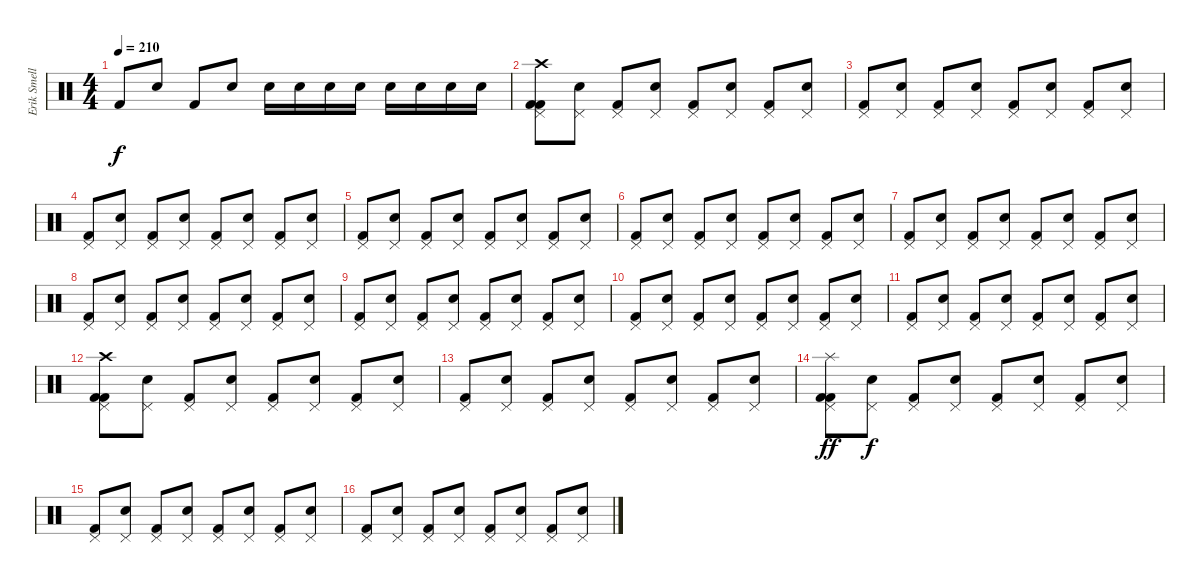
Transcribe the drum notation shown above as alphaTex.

\track ("Erik Smelly" "Erik Smell") {instrument percussion}
\staff {score}
\articulation defaults
\ts (4 4)
\tempo 210
\clef neutral
\ks c "Kick (hit) 2".8{dy f} "Electric Snare (hit)".8 "Kick (hit) 2".8 "Electric Snare (hit)".8 "Electric Snare (hit)".16 "Electric Snare (hit)".16 "Electric Snare (hit)".16 "Electric Snare (hit)".16 "Electric Snare (hit)".16 "Electric Snare (hit)".16 "Electric Snare (hit)".16 "Electric Snare (hit)".16
|
("Pedal Hi-Hat (hit)" "Kick (hit) 2" "Crash high (hit)" "Kick (hit) 2").8 ("Pedal Hi-Hat (hit)" "Electric Snare (hit)").8 ("Pedal Hi-Hat (hit)" "Kick (hit) 2").8 ("Pedal Hi-Hat (hit)" "Electric Snare (hit)").8 ("Pedal Hi-Hat (hit)" "Kick (hit) 2").8 ("Pedal Hi-Hat (hit)" "Electric Snare (hit)").8 ("Pedal Hi-Hat (hit)" "Kick (hit) 2").8 ("Pedal Hi-Hat (hit)" "Electric Snare (hit)").8 |
("Pedal Hi-Hat (hit)" "Kick (hit) 2").8 ("Pedal Hi-Hat (hit)" "Electric Snare (hit)").8 ("Pedal Hi-Hat (hit)" "Kick (hit) 2").8 ("Pedal Hi-Hat (hit)" "Electric Snare (hit)").8 ("Pedal Hi-Hat (hit)" "Kick (hit) 2").8 ("Pedal Hi-Hat (hit)" "Electric Snare (hit)").8 ("Pedal Hi-Hat (hit)" "Kick (hit) 2").8 ("Pedal Hi-Hat (hit)" "Electric Snare (hit)").8 |
("Pedal Hi-Hat (hit)" "Kick (hit) 2").8 ("Pedal Hi-Hat (hit)" "Electric Snare (hit)").8 ("Pedal Hi-Hat (hit)" "Kick (hit) 2").8 ("Pedal Hi-Hat (hit)" "Electric Snare (hit)").8 ("Pedal Hi-Hat (hit)" "Kick (hit) 2").8 ("Pedal Hi-Hat (hit)" "Electric Snare (hit)").8 ("Pedal Hi-Hat (hit)" "Kick (hit) 2").8 ("Pedal Hi-Hat (hit)" "Electric Snare (hit)").8 |
("Pedal Hi-Hat (hit)" "Kick (hit) 2").8 ("Pedal Hi-Hat (hit)" "Electric Snare (hit)").8 ("Pedal Hi-Hat (hit)" "Kick (hit) 2").8 ("Pedal Hi-Hat (hit)" "Electric Snare (hit)").8 ("Pedal Hi-Hat (hit)" "Kick (hit) 2").8 ("Pedal Hi-Hat (hit)" "Electric Snare (hit)").8 ("Pedal Hi-Hat (hit)" "Kick (hit) 2").8 ("Pedal Hi-Hat (hit)" "Electric Snare (hit)").8 |
("Pedal Hi-Hat (hit)" "Kick (hit) 2").8 ("Pedal Hi-Hat (hit)" "Electric Snare (hit)").8 ("Pedal Hi-Hat (hit)" "Kick (hit) 2").8 ("Pedal Hi-Hat (hit)" "Electric Snare (hit)").8 ("Pedal Hi-Hat (hit)" "Kick (hit) 2").8 ("Pedal Hi-Hat (hit)" "Electric Snare (hit)").8 ("Pedal Hi-Hat (hit)" "Kick (hit) 2").8 ("Pedal Hi-Hat (hit)" "Electric Snare (hit)").8 |
("Pedal Hi-Hat (hit)" "Kick (hit) 2").8 ("Pedal Hi-Hat (hit)" "Electric Snare (hit)").8 ("Pedal Hi-Hat (hit)" "Kick (hit) 2").8 ("Pedal Hi-Hat (hit)" "Electric Snare (hit)").8 ("Pedal Hi-Hat (hit)" "Kick (hit) 2").8 ("Pedal Hi-Hat (hit)" "Electric Snare (hit)").8 ("Pedal Hi-Hat (hit)" "Kick (hit) 2").8 ("Pedal Hi-Hat (hit)" "Electric Snare (hit)").8 |
("Pedal Hi-Hat (hit)" "Kick (hit) 2").8 ("Pedal Hi-Hat (hit)" "Electric Snare (hit)").8 ("Pedal Hi-Hat (hit)" "Kick (hit) 2").8 ("Pedal Hi-Hat (hit)" "Electric Snare (hit)").8 ("Pedal Hi-Hat (hit)" "Kick (hit) 2").8 ("Pedal Hi-Hat (hit)" "Electric Snare (hit)").8 ("Pedal Hi-Hat (hit)" "Kick (hit) 2").8 ("Pedal Hi-Hat (hit)" "Electric Snare (hit)").8 |
("Pedal Hi-Hat (hit)" "Kick (hit) 2").8 ("Pedal Hi-Hat (hit)" "Electric Snare (hit)").8 ("Pedal Hi-Hat (hit)" "Kick (hit) 2").8 ("Pedal Hi-Hat (hit)" "Electric Snare (hit)").8 ("Pedal Hi-Hat (hit)" "Kick (hit) 2").8 ("Pedal Hi-Hat (hit)" "Electric Snare (hit)").8 ("Pedal Hi-Hat (hit)" "Kick (hit) 2").8 ("Pedal Hi-Hat (hit)" "Electric Snare (hit)").8 |
("Pedal Hi-Hat (hit)" "Kick (hit) 2").8 ("Pedal Hi-Hat (hit)" "Electric Snare (hit)").8 ("Pedal Hi-Hat (hit)" "Kick (hit) 2").8 ("Pedal Hi-Hat (hit)" "Electric Snare (hit)").8 ("Pedal Hi-Hat (hit)" "Kick (hit) 2").8 ("Pedal Hi-Hat (hit)" "Electric Snare (hit)").8 ("Pedal Hi-Hat (hit)" "Kick (hit) 2").8 ("Pedal Hi-Hat (hit)" "Electric Snare (hit)").8 |
("Pedal Hi-Hat (hit)" "Kick (hit) 2").8 ("Pedal Hi-Hat (hit)" "Electric Snare (hit)").8 ("Pedal Hi-Hat (hit)" "Kick (hit) 2").8 ("Pedal Hi-Hat (hit)" "Electric Snare (hit)").8 ("Pedal Hi-Hat (hit)" "Kick (hit) 2").8 ("Pedal Hi-Hat (hit)" "Electric Snare (hit)").8 ("Pedal Hi-Hat (hit)" "Kick (hit) 2").8 ("Pedal Hi-Hat (hit)" "Electric Snare (hit)").8 |
("Pedal Hi-Hat (hit)" "Kick (hit) 2" "Crash high (hit)" "Kick (hit) 2").8 ("Pedal Hi-Hat (hit)" "Electric Snare (hit)").8 ("Pedal Hi-Hat (hit)" "Kick (hit) 2").8 ("Pedal Hi-Hat (hit)" "Electric Snare (hit)").8 ("Pedal Hi-Hat (hit)" "Kick (hit) 2").8 ("Pedal Hi-Hat (hit)" "Electric Snare (hit)").8 ("Pedal Hi-Hat (hit)" "Kick (hit) 2").8 ("Pedal Hi-Hat (hit)" "Electric Snare (hit)").8 |
("Pedal Hi-Hat (hit)" "Kick (hit) 2").8 ("Pedal Hi-Hat (hit)" "Electric Snare (hit)").8 ("Pedal Hi-Hat (hit)" "Kick (hit) 2").8 ("Pedal Hi-Hat (hit)" "Electric Snare (hit)").8 ("Pedal Hi-Hat (hit)" "Kick (hit) 2").8 ("Pedal Hi-Hat (hit)" "Electric Snare (hit)").8 ("Pedal Hi-Hat (hit)" "Kick (hit) 2").8 ("Pedal Hi-Hat (hit)" "Electric Snare (hit)").8 |
("Pedal Hi-Hat (hit)" "Kick (hit) 2" "Kick (hit) 2" "Splash (hit)").8{dy ff} ("Pedal Hi-Hat (hit)" "Electric Snare (hit)").8{dy f} ("Pedal Hi-Hat (hit)" "Kick (hit) 2").8 ("Pedal Hi-Hat (hit)" "Electric Snare (hit)").8 ("Pedal Hi-Hat (hit)" "Kick (hit) 2").8 ("Pedal Hi-Hat (hit)" "Electric Snare (hit)").8 ("Pedal Hi-Hat (hit)" "Kick (hit) 2").8 ("Pedal Hi-Hat (hit)" "Electric Snare (hit)").8 |
("Pedal Hi-Hat (hit)" "Kick (hit) 2").8 ("Pedal Hi-Hat (hit)" "Electric Snare (hit)").8 ("Pedal Hi-Hat (hit)" "Kick (hit) 2").8 ("Pedal Hi-Hat (hit)" "Electric Snare (hit)").8 ("Pedal Hi-Hat (hit)" "Kick (hit) 2").8 ("Pedal Hi-Hat (hit)" "Electric Snare (hit)").8 ("Pedal Hi-Hat (hit)" "Kick (hit) 2").8 ("Pedal Hi-Hat (hit)" "Electric Snare (hit)").8 |
("Pedal Hi-Hat (hit)" "Kick (hit) 2").8 ("Pedal Hi-Hat (hit)" "Electric Snare (hit)").8 ("Pedal Hi-Hat (hit)" "Kick (hit) 2").8 ("Pedal Hi-Hat (hit)" "Electric Snare (hit)").8 ("Pedal Hi-Hat (hit)" "Kick (hit) 2").8 ("Pedal Hi-Hat (hit)" "Electric Snare (hit)").8 ("Pedal Hi-Hat (hit)" "Kick (hit) 2").8 ("Pedal Hi-Hat (hit)" "Electric Snare (hit)").8
